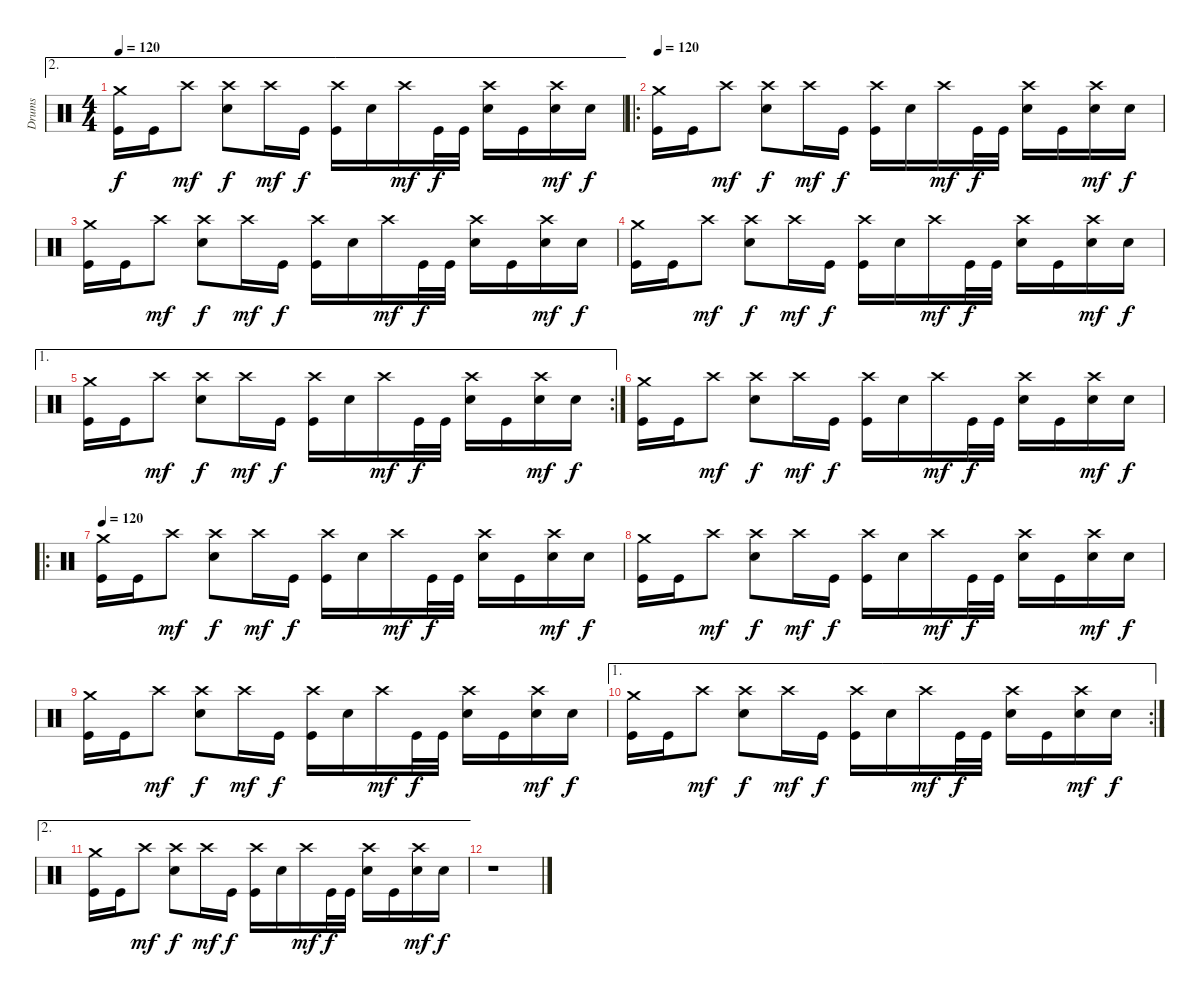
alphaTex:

\track ("Drums" "Drums") {instrument percussion}
\staff {score}
\articulation defaults
\ae 2
\ts (4 4)
\tempo 120
\clef neutral
\ks c
("Crash medium (hit)" "Kick (hit)").16{dy f} "Kick (hit)".16 "Crash high (hit)".8{dy mf} ("Crash high (hit)" "Electric Snare (hit)").8{dy f} "Crash high (hit)".16{dy mf} "Kick (hit)".16{dy f} ("Crash high (hit)" "Kick (hit)").16 "Electric Snare (hit)".16 "Crash high (hit)".16{dy mf} "Kick (hit)".32{dy f} "Kick (hit)".32 ("Crash high (hit)" "Electric Snare (hit)").16 "Kick (hit)".16 ("Crash high (hit)" "Electric Snare (hit)").16{dy mf} "Electric Snare (hit)".16{dy f} |
\ro
\tempo 120
("Crash medium (hit)" "Kick (hit)").16 "Kick (hit)".16 "Crash high (hit)".8{dy mf} ("Crash high (hit)" "Electric Snare (hit)").8{dy f} "Crash high (hit)".16{dy mf} "Kick (hit)".16{dy f} ("Crash high (hit)" "Kick (hit)").16 "Electric Snare (hit)".16 "Crash high (hit)".16{dy mf} "Kick (hit)".32{dy f} "Kick (hit)".32 ("Crash high (hit)" "Electric Snare (hit)").16 "Kick (hit)".16 ("Crash high (hit)" "Electric Snare (hit)").16{dy mf} "Electric Snare (hit)".16{dy f} |
("Crash medium (hit)" "Kick (hit)").16 "Kick (hit)".16 "Crash high (hit)".8{dy mf} ("Crash high (hit)" "Electric Snare (hit)").8{dy f} "Crash high (hit)".16{dy mf} "Kick (hit)".16{dy f} ("Crash high (hit)" "Kick (hit)").16 "Electric Snare (hit)".16 "Crash high (hit)".16{dy mf} "Kick (hit)".32{dy f} "Kick (hit)".32 ("Crash high (hit)" "Electric Snare (hit)").16 "Kick (hit)".16 ("Crash high (hit)" "Electric Snare (hit)").16{dy mf} "Electric Snare (hit)".16{dy f} |
("Crash medium (hit)" "Kick (hit)").16 "Kick (hit)".16 "Crash high (hit)".8{dy mf} ("Crash high (hit)" "Electric Snare (hit)").8{dy f} "Crash high (hit)".16{dy mf} "Kick (hit)".16{dy f} ("Crash high (hit)" "Kick (hit)").16 "Electric Snare (hit)".16 "Crash high (hit)".16{dy mf} "Kick (hit)".32{dy f} "Kick (hit)".32 ("Crash high (hit)" "Electric Snare (hit)").16 "Kick (hit)".16 ("Crash high (hit)" "Electric Snare (hit)").16{dy mf} "Electric Snare (hit)".16{dy f} |
\ae 1
\rc 2
("Crash medium (hit)" "Kick (hit)").16 "Kick (hit)".16 "Crash high (hit)".8{dy mf} ("Crash high (hit)" "Electric Snare (hit)").8{dy f} "Crash high (hit)".16{dy mf} "Kick (hit)".16{dy f} ("Crash high (hit)" "Kick (hit)").16 "Electric Snare (hit)".16 "Crash high (hit)".16{dy mf} "Kick (hit)".32{dy f} "Kick (hit)".32 ("Crash high (hit)" "Electric Snare (hit)").16 "Kick (hit)".16 ("Crash high (hit)" "Electric Snare (hit)").16{dy mf} "Electric Snare (hit)".16{dy f} |
("Crash medium (hit)" "Kick (hit)").16 "Kick (hit)".16 "Crash high (hit)".8{dy mf} ("Crash high (hit)" "Electric Snare (hit)").8{dy f} "Crash high (hit)".16{dy mf} "Kick (hit)".16{dy f} ("Crash high (hit)" "Kick (hit)").16 "Electric Snare (hit)".16 "Crash high (hit)".16{dy mf} "Kick (hit)".32{dy f} "Kick (hit)".32 ("Crash high (hit)" "Electric Snare (hit)").16 "Kick (hit)".16 ("Crash high (hit)" "Electric Snare (hit)").16{dy mf} "Electric Snare (hit)".16{dy f} |
\ro
\tempo 120
("Crash medium (hit)" "Kick (hit)").16 "Kick (hit)".16 "Crash high (hit)".8{dy mf} ("Crash high (hit)" "Electric Snare (hit)").8{dy f} "Crash high (hit)".16{dy mf} "Kick (hit)".16{dy f} ("Crash high (hit)" "Kick (hit)").16 "Electric Snare (hit)".16 "Crash high (hit)".16{dy mf} "Kick (hit)".32{dy f} "Kick (hit)".32 ("Crash high (hit)" "Electric Snare (hit)").16 "Kick (hit)".16 ("Crash high (hit)" "Electric Snare (hit)").16{dy mf} "Electric Snare (hit)".16{dy f} |
("Crash medium (hit)" "Kick (hit)").16 "Kick (hit)".16 "Crash high (hit)".8{dy mf} ("Crash high (hit)" "Electric Snare (hit)").8{dy f} "Crash high (hit)".16{dy mf} "Kick (hit)".16{dy f} ("Crash high (hit)" "Kick (hit)").16 "Electric Snare (hit)".16 "Crash high (hit)".16{dy mf} "Kick (hit)".32{dy f} "Kick (hit)".32 ("Crash high (hit)" "Electric Snare (hit)").16 "Kick (hit)".16 ("Crash high (hit)" "Electric Snare (hit)").16{dy mf} "Electric Snare (hit)".16{dy f} |
("Crash medium (hit)" "Kick (hit)").16 "Kick (hit)".16 "Crash high (hit)".8{dy mf} ("Crash high (hit)" "Electric Snare (hit)").8{dy f} "Crash high (hit)".16{dy mf} "Kick (hit)".16{dy f} ("Crash high (hit)" "Kick (hit)").16 "Electric Snare (hit)".16 "Crash high (hit)".16{dy mf} "Kick (hit)".32{dy f} "Kick (hit)".32 ("Crash high (hit)" "Electric Snare (hit)").16 "Kick (hit)".16 ("Crash high (hit)" "Electric Snare (hit)").16{dy mf} "Electric Snare (hit)".16{dy f} |
\ae 1
\rc 2
("Crash medium (hit)" "Kick (hit)").16 "Kick (hit)".16 "Crash high (hit)".8{dy mf} ("Crash high (hit)" "Electric Snare (hit)").8{dy f} "Crash high (hit)".16{dy mf} "Kick (hit)".16{dy f} ("Crash high (hit)" "Kick (hit)").16 "Electric Snare (hit)".16 "Crash high (hit)".16{dy mf} "Kick (hit)".32{dy f} "Kick (hit)".32 ("Crash high (hit)" "Electric Snare (hit)").16 "Kick (hit)".16 ("Crash high (hit)" "Electric Snare (hit)").16{dy mf} "Electric Snare (hit)".16{dy f} |
\ae 2
("Crash medium (hit)" "Kick (hit)").16 "Kick (hit)".16 "Crash high (hit)".8{dy mf} ("Crash high (hit)" "Electric Snare (hit)").8{dy f} "Crash high (hit)".16{dy mf} "Kick (hit)".16{dy f} ("Crash high (hit)" "Kick (hit)").16 "Electric Snare (hit)".16 "Crash high (hit)".16{dy mf} "Kick (hit)".32{dy f} "Kick (hit)".32 ("Crash high (hit)" "Electric Snare (hit)").16 "Kick (hit)".16 ("Crash high (hit)" "Electric Snare (hit)").16{dy mf} "Electric Snare (hit)".16{dy f} |
r.1
